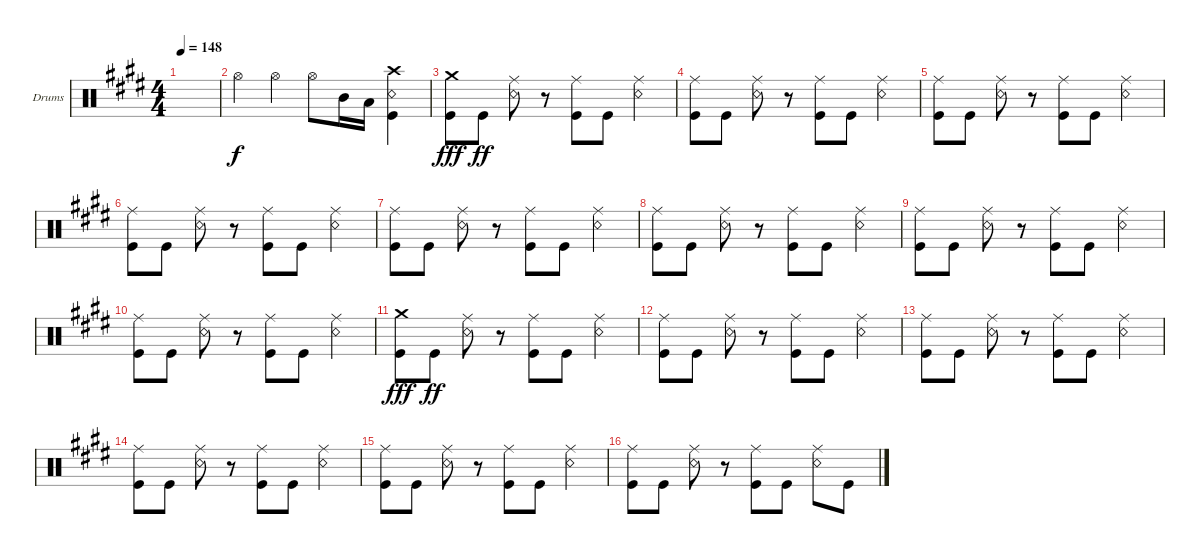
\bracketExtendMode groupsimilarinstruments
\firstSystemTrackNameOrientation horizontal
\otherSystemsTrackNameOrientation horizontal
\track ("Drums" "Drums") {instrument percussion}
\staff {score}
\articulation defaults
\ts (4 4)
\tempo 148
\clef neutral
\ks e
|
"Hi-Hat (open)".4 "Hi-Hat (open)".4 "Hi-Hat (open)".8 "Mid Tom (hit)".16{dy f} "Low Tom (hit)".16 ("Kick (hit)" "Snare (rim shot)" "Crash high (hit)").4 |
("Kick (hit)" "Crash medium (hit)").8{dy fff} "Kick (hit)".8{dy ff} ("Snare (rim shot)" "Ride (middle)").8 r.8 ("Kick (hit)" "Ride (middle)").8 "Kick (hit)".8 ("Snare (rim shot)" "Ride (middle)").4 |
("Kick (hit)" "Ride (middle)").8 "Kick (hit)".8 ("Snare (rim shot)" "Ride (middle)").8 r.8 ("Kick (hit)" "Ride (middle)").8 "Kick (hit)".8 ("Snare (rim shot)" "Ride (middle)").4 |
("Kick (hit)" "Ride (middle)").8 "Kick (hit)".8 ("Snare (rim shot)" "Ride (middle)").8 r.8 ("Kick (hit)" "Ride (middle)").8 "Kick (hit)".8 ("Snare (rim shot)" "Ride (middle)").4 |
("Kick (hit)" "Ride (middle)").8 "Kick (hit)".8 ("Snare (rim shot)" "Ride (middle)").8 r.8 ("Kick (hit)" "Ride (middle)").8 "Kick (hit)".8 ("Snare (rim shot)" "Ride (middle)").4 |
("Kick (hit)" "Ride (middle)").8 "Kick (hit)".8 ("Snare (rim shot)" "Ride (middle)").8 r.8 ("Kick (hit)" "Ride (middle)").8 "Kick (hit)".8 ("Snare (rim shot)" "Ride (middle)").4 |
("Kick (hit)" "Ride (middle)").8 "Kick (hit)".8 ("Snare (rim shot)" "Ride (middle)").8 r.8 ("Kick (hit)" "Ride (middle)").8 "Kick (hit)".8 ("Snare (rim shot)" "Ride (middle)").4 |
("Kick (hit)" "Ride (middle)").8 "Kick (hit)".8 ("Snare (rim shot)" "Ride (middle)").8 r.8 ("Kick (hit)" "Ride (middle)").8 "Kick (hit)".8 ("Snare (rim shot)" "Ride (middle)").4 |
("Kick (hit)" "Ride (middle)").8 "Kick (hit)".8 ("Snare (rim shot)" "Ride (middle)").8 r.8 ("Kick (hit)" "Ride (middle)").8 "Kick (hit)".8 ("Snare (rim shot)" "Ride (middle)").4 |
("Kick (hit)" "Crash medium (hit)").8{dy fff} "Kick (hit)".8{dy ff} ("Snare (rim shot)" "Ride (middle)").8 r.8 ("Kick (hit)" "Ride (middle)").8 "Kick (hit)".8 ("Snare (rim shot)" "Ride (middle)").4 |
("Kick (hit)" "Ride (middle)").8 "Kick (hit)".8 ("Snare (rim shot)" "Ride (middle)").8 r.8 ("Kick (hit)" "Ride (middle)").8 "Kick (hit)".8 ("Snare (rim shot)" "Ride (middle)").4 |
("Kick (hit)" "Ride (middle)").8 "Kick (hit)".8 ("Snare (rim shot)" "Ride (middle)").8 r.8 ("Kick (hit)" "Ride (middle)").8 "Kick (hit)".8 ("Snare (rim shot)" "Ride (middle)").4 |
("Kick (hit)" "Ride (middle)").8 "Kick (hit)".8 ("Snare (rim shot)" "Ride (middle)").8 r.8 ("Kick (hit)" "Ride (middle)").8 "Kick (hit)".8 ("Snare (rim shot)" "Ride (middle)").4 |
("Kick (hit)" "Ride (middle)").8 "Kick (hit)".8 ("Snare (rim shot)" "Ride (middle)").8 r.8 ("Kick (hit)" "Ride (middle)").8 "Kick (hit)".8 ("Snare (rim shot)" "Ride (middle)").4 |
("Kick (hit)" "Ride (middle)").8 "Kick (hit)".8 ("Snare (rim shot)" "Ride (middle)").8 r.8 ("Kick (hit)" "Ride (middle)").8 "Kick (hit)".8 ("Snare (rim shot)" "Ride (middle)").8 "Kick (hit)".8
